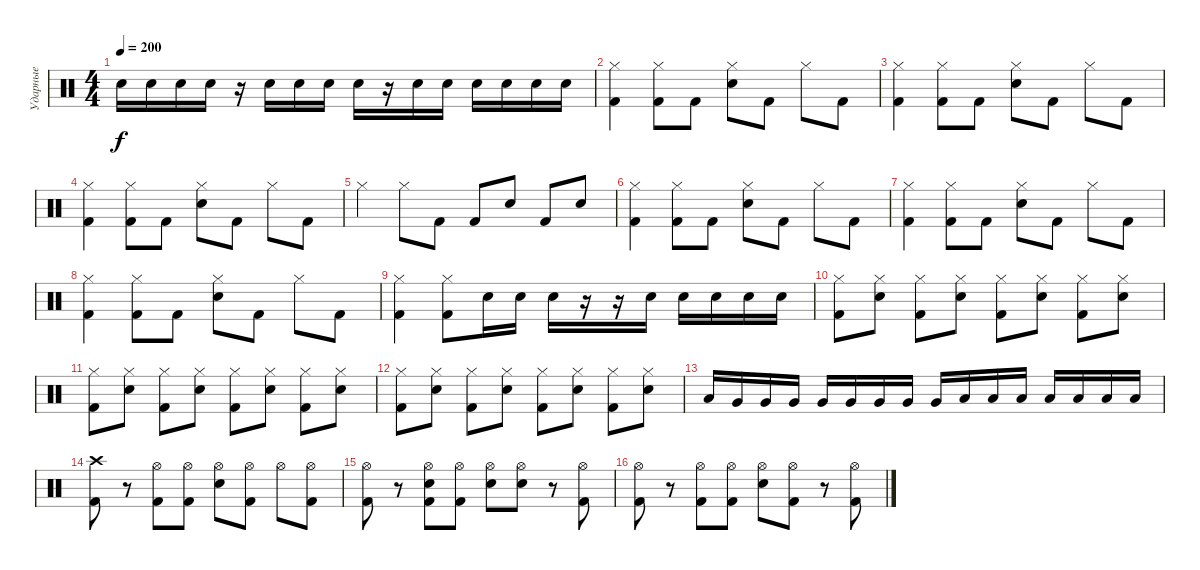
\track ("Ударные" "Ударные") {instrument percussion}
\staff {score}
\articulation defaults
\ts (4 4)
\tempo 200
\clef neutral
\ks c "Electric Snare (hit)".16{dy f} "Electric Snare (hit)".16 "Electric Snare (hit)".16 "Electric Snare (hit)".16
r.16 "Electric Snare (hit)".16 "Electric Snare (hit)".16 "Electric Snare (hit)".16 "Electric Snare (hit)".16 r.16 "Electric Snare (hit)".16 "Electric Snare (hit)".16 "Electric Snare (hit)".16 "Electric Snare (hit)".16 "Electric Snare (hit)".16 "Electric Snare (hit)".16 |
("Hi-Hat (closed)" "Kick (hit) 2").4 ("Hi-Hat (closed)" "Kick (hit) 2").8 "Kick (hit) 2".8 ("Hi-Hat (closed)" "Electric Snare (hit)").8 "Kick (hit) 2".8 "Hi-Hat (closed)".8 "Kick (hit) 2".8 |
("Hi-Hat (closed)" "Kick (hit) 2").4 ("Hi-Hat (closed)" "Kick (hit) 2").8 "Kick (hit) 2".8 ("Hi-Hat (closed)" "Electric Snare (hit)").8 "Kick (hit) 2".8 "Hi-Hat (closed)".8 "Kick (hit) 2".8 |
("Hi-Hat (closed)" "Kick (hit) 2").4 ("Hi-Hat (closed)" "Kick (hit) 2").8 "Kick (hit) 2".8 ("Hi-Hat (closed)" "Electric Snare (hit)").8 "Kick (hit) 2".8 "Hi-Hat (closed)".8 "Kick (hit) 2".8 |
"Hi-Hat (closed)".4 "Hi-Hat (closed)".8 "Kick (hit) 2".8 "Kick (hit) 2".8 "Electric Snare (hit)".8 "Kick (hit) 2".8 "Electric Snare (hit)".8 |
("Hi-Hat (closed)" "Kick (hit) 2").4 ("Hi-Hat (closed)" "Kick (hit) 2").8 "Kick (hit) 2".8 ("Hi-Hat (closed)" "Electric Snare (hit)").8 "Kick (hit) 2".8 "Hi-Hat (closed)".8 "Kick (hit) 2".8 |
("Hi-Hat (closed)" "Kick (hit) 2").4 ("Hi-Hat (closed)" "Kick (hit) 2").8 "Kick (hit) 2".8 ("Hi-Hat (closed)" "Electric Snare (hit)").8 "Kick (hit) 2".8 "Hi-Hat (closed)".8 "Kick (hit) 2".8 |
("Hi-Hat (closed)" "Kick (hit) 2").4 ("Hi-Hat (closed)" "Kick (hit) 2").8 "Kick (hit) 2".8 ("Hi-Hat (closed)" "Electric Snare (hit)").8 "Kick (hit) 2".8 "Hi-Hat (closed)".8 "Kick (hit) 2".8 |
("Hi-Hat (closed)" "Kick (hit) 2").4 ("Hi-Hat (closed)" "Kick (hit) 2").8 "Electric Snare (hit)".16 "Electric Snare (hit)".16 "Electric Snare (hit)".16 r.16 r.16 "Electric Snare (hit)".16 "Electric Snare (hit)".16 "Electric Snare (hit)".16 "Electric Snare (hit)".16 "Electric Snare (hit)".16 |
("Kick (hit) 2" "Hi-Hat (closed)").8 ("Electric Snare (hit)" "Hi-Hat (closed)").8 ("Kick (hit) 2" "Hi-Hat (closed)").8 ("Electric Snare (hit)" "Hi-Hat (closed)").8 ("Kick (hit) 2" "Hi-Hat (closed)").8 ("Electric Snare (hit)" "Hi-Hat (closed)").8 ("Kick (hit) 2" "Hi-Hat (closed)").8 ("Electric Snare (hit)" "Hi-Hat (closed)").8 |
("Kick (hit) 2" "Hi-Hat (closed)").8 ("Electric Snare (hit)" "Hi-Hat (closed)").8 ("Kick (hit) 2" "Hi-Hat (closed)").8 ("Electric Snare (hit)" "Hi-Hat (closed)").8 ("Kick (hit) 2" "Hi-Hat (closed)").8 ("Electric Snare (hit)" "Hi-Hat (closed)").8 ("Kick (hit) 2" "Hi-Hat (closed)").8 ("Electric Snare (hit)" "Hi-Hat (closed)").8 |
("Kick (hit) 2" "Hi-Hat (closed)").8 ("Electric Snare (hit)" "Hi-Hat (closed)").8 ("Kick (hit) 2" "Hi-Hat (closed)").8 ("Electric Snare (hit)" "Hi-Hat (closed)").8 ("Kick (hit) 2" "Hi-Hat (closed)").8 ("Electric Snare (hit)" "Hi-Hat (closed)").8 ("Kick (hit) 2" "Hi-Hat (closed)").8 ("Electric Snare (hit)" "Hi-Hat (closed)").8 |
"Low Floor Tom (hit)".16 "Very Low Tom (hit)".16 "Very Low Tom (hit)".16 "Very Low Tom (hit)".16 "Very Low Tom (hit)".16 "Very Low Tom (hit)".16 "Very Low Tom (hit)".16 "Very Low Tom (hit)".16 "Very Low Tom (hit)".16 "Low Tom (hit)".16 "Low Tom (hit)".16 "Low Tom (hit)".16 "Low Tom (hit)".16 "Low Floor Tom (hit)".16 "Low Floor Tom (hit)".16 "Low Floor Tom (hit)".16 |
("Kick (hit) 2" "Crash high (hit)").8 r.8 ("Kick (hit) 2" "Hi-Hat (open)").8 ("Kick (hit) 2" "Hi-Hat (open)").8 ("Electric Snare (hit)" "Hi-Hat (open)").8 ("Kick (hit) 2" "Hi-Hat (open)").8 "Hi-Hat (open)".8 ("Kick (hit) 2" "Hi-Hat (open)").8 |
("Kick (hit) 2" "Hi-Hat (open)").8 r.8 ("Kick (hit) 2" "Hi-Hat (open)" "Snare (hit)").8 ("Kick (hit) 2" "Hi-Hat (open)").8 ("Electric Snare (hit)" "Hi-Hat (open)").8 ("Electric Snare (hit)" "Hi-Hat (open)").8 r.8 ("Kick (hit) 2" "Hi-Hat (open)").8 |
("Kick (hit) 2" "Hi-Hat (open)").8 r.8 ("Kick (hit) 2" "Hi-Hat (open)").8 ("Kick (hit) 2" "Hi-Hat (open)").8 ("Electric Snare (hit)" "Hi-Hat (open)").8 ("Kick (hit) 2" "Hi-Hat (open)").8 r.8 ("Kick (hit) 2" "Hi-Hat (open)").8
